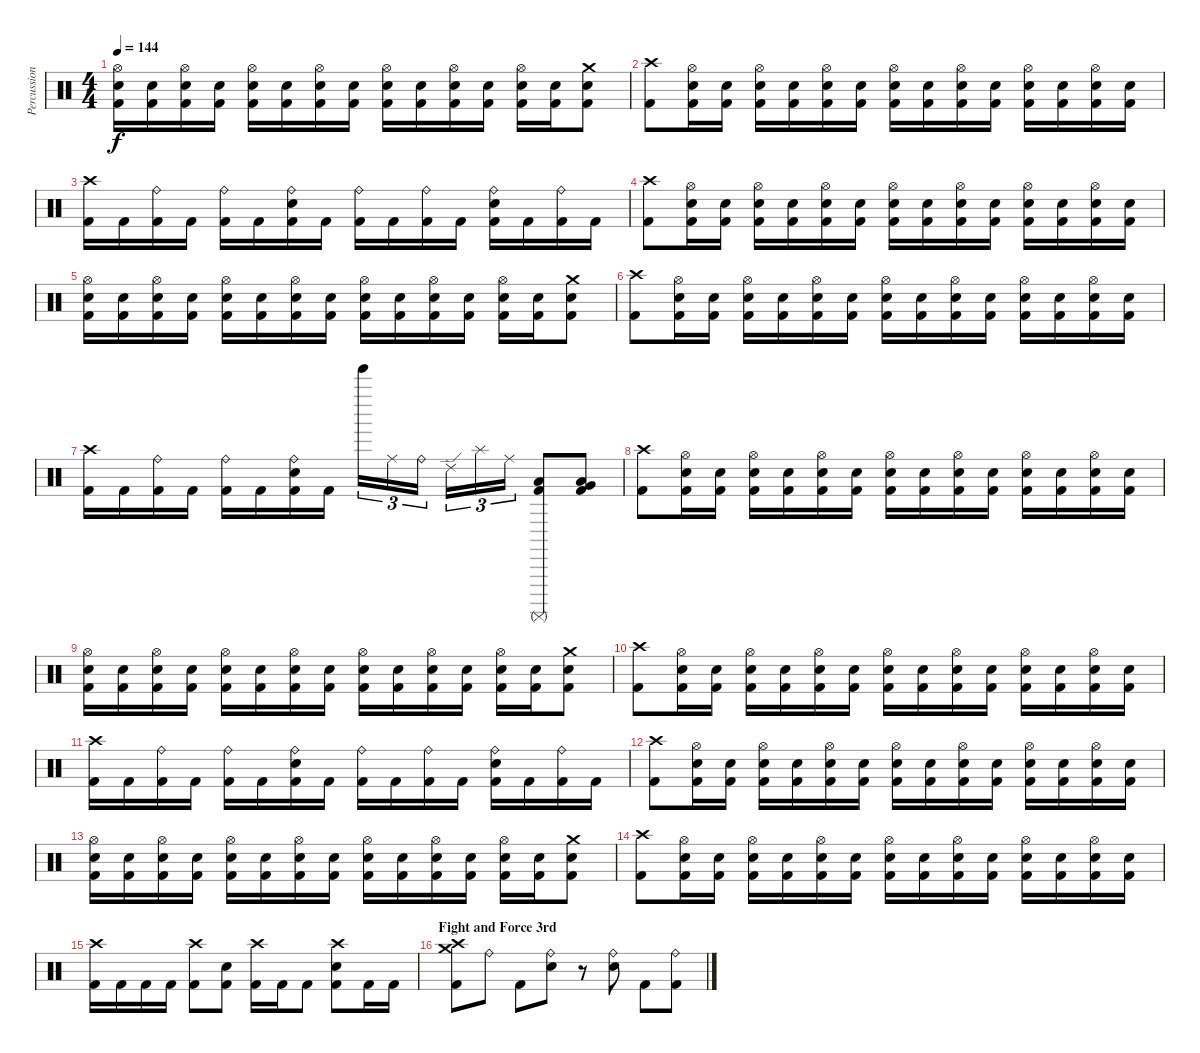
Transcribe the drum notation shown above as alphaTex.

\track ("Percussion" "Percussion") {instrument percussion}
\staff {score}
\articulation defaults
\ts (4 4)
\tempo 144
\clef neutral
\ks c
("Hi-Hat (open)" "Electric Snare (hit)" "Kick (hit) 2").16{dy f} ("Electric Snare (hit)" "Kick (hit) 2").16 ("Hi-Hat (open)" "Electric Snare (hit)" "Kick (hit) 2").16 ("Electric Snare (hit)" "Kick (hit) 2").16 ("Hi-Hat (open)" "Electric Snare (hit)" "Kick (hit) 2").16 ("Electric Snare (hit)" "Kick (hit) 2").16 ("Hi-Hat (open)" "Electric Snare (hit)" "Kick (hit) 2").16 ("Electric Snare (hit)" "Kick (hit) 2").16 ("Hi-Hat (open)" "Electric Snare (hit)" "Kick (hit) 2").16 ("Electric Snare (hit)" "Kick (hit) 2").16 ("Hi-Hat (open)" "Electric Snare (hit)" "Kick (hit) 2").16 ("Electric Snare (hit)" "Kick (hit) 2").16 ("Hi-Hat (open)" "Electric Snare (hit)" "Kick (hit) 2").16 ("Electric Snare (hit)" "Kick (hit) 2").16 ("Crash medium (hit)" "Electric Snare (hit)" "Kick (hit) 2").8 |
("Crash high (hit)" "Kick (hit) 2").8 ("Hi-Hat (open)" "Electric Snare (hit)" "Kick (hit) 2").16 ("Electric Snare (hit)" "Kick (hit) 2").16 ("Hi-Hat (open)" "Electric Snare (hit)" "Kick (hit) 2").16 ("Electric Snare (hit)" "Kick (hit) 2").16 ("Hi-Hat (open)" "Electric Snare (hit)" "Kick (hit) 2").16 ("Electric Snare (hit)" "Kick (hit) 2").16 ("Hi-Hat (open)" "Electric Snare (hit)" "Kick (hit) 2").16 ("Electric Snare (hit)" "Kick (hit) 2").16 ("Hi-Hat (open)" "Electric Snare (hit)" "Kick (hit) 2").16 ("Electric Snare (hit)" "Kick (hit) 2").16 ("Hi-Hat (open)" "Electric Snare (hit)" "Kick (hit) 2").16 ("Electric Snare (hit)" "Kick (hit) 2").16 ("Hi-Hat (open)" "Electric Snare (hit)" "Kick (hit) 2").16 ("Electric Snare (hit)" "Kick (hit) 2").16 |
("Crash high (hit)" "Kick (hit) 2").16 "Kick (hit) 2".16 ("Ride (bell)" "Kick (hit) 2").16 "Kick (hit) 2".16 ("Ride (bell)" "Kick (hit) 2").16 "Kick (hit) 2".16 ("Ride (bell)" "Electric Snare (hit)" "Kick (hit) 2").16 "Kick (hit) 2".16 ("Ride (bell)" "Kick (hit) 2").16 "Kick (hit) 2".16 ("Ride (bell)" "Kick (hit) 2").16 "Kick (hit) 2".16 ("Ride (bell)" "Electric Snare (hit)" "Kick (hit) 2").16 "Kick (hit) 2".16 ("Ride (bell)" "Kick (hit) 2").16 "Kick (hit) 2".16 |
("Crash high (hit)" "Kick (hit) 2").8 ("Hi-Hat (open)" "Electric Snare (hit)" "Kick (hit) 2").16 ("Electric Snare (hit)" "Kick (hit) 2").16 ("Hi-Hat (open)" "Electric Snare (hit)" "Kick (hit) 2").16 ("Electric Snare (hit)" "Kick (hit) 2").16 ("Hi-Hat (open)" "Electric Snare (hit)" "Kick (hit) 2").16 ("Electric Snare (hit)" "Kick (hit) 2").16 ("Hi-Hat (open)" "Electric Snare (hit)" "Kick (hit) 2").16 ("Electric Snare (hit)" "Kick (hit) 2").16 ("Hi-Hat (open)" "Electric Snare (hit)" "Kick (hit) 2").16 ("Electric Snare (hit)" "Kick (hit) 2").16 ("Hi-Hat (open)" "Electric Snare (hit)" "Kick (hit) 2").16 ("Electric Snare (hit)" "Kick (hit) 2").16 ("Hi-Hat (open)" "Electric Snare (hit)" "Kick (hit) 2").16 ("Electric Snare (hit)" "Kick (hit) 2").16 |
("Hi-Hat (open)" "Electric Snare (hit)" "Kick (hit) 2").16 ("Electric Snare (hit)" "Kick (hit) 2").16 ("Hi-Hat (open)" "Electric Snare (hit)" "Kick (hit) 2").16 ("Electric Snare (hit)" "Kick (hit) 2").16 ("Hi-Hat (open)" "Electric Snare (hit)" "Kick (hit) 2").16 ("Electric Snare (hit)" "Kick (hit) 2").16 ("Hi-Hat (open)" "Electric Snare (hit)" "Kick (hit) 2").16 ("Electric Snare (hit)" "Kick (hit) 2").16 ("Hi-Hat (open)" "Electric Snare (hit)" "Kick (hit) 2").16 ("Electric Snare (hit)" "Kick (hit) 2").16 ("Hi-Hat (open)" "Electric Snare (hit)" "Kick (hit) 2").16 ("Electric Snare (hit)" "Kick (hit) 2").16 ("Hi-Hat (open)" "Electric Snare (hit)" "Kick (hit) 2").16 ("Electric Snare (hit)" "Kick (hit) 2").16 ("Crash medium (hit)" "Electric Snare (hit)" "Kick (hit) 2").8 |
("Crash high (hit)" "Kick (hit) 2").8 ("Hi-Hat (open)" "Electric Snare (hit)" "Kick (hit) 2").16 ("Electric Snare (hit)" "Kick (hit) 2").16 ("Hi-Hat (open)" "Electric Snare (hit)" "Kick (hit) 2").16 ("Electric Snare (hit)" "Kick (hit) 2").16 ("Hi-Hat (open)" "Electric Snare (hit)" "Kick (hit) 2").16 ("Electric Snare (hit)" "Kick (hit) 2").16 ("Hi-Hat (open)" "Electric Snare (hit)" "Kick (hit) 2").16 ("Electric Snare (hit)" "Kick (hit) 2").16 ("Hi-Hat (open)" "Electric Snare (hit)" "Kick (hit) 2").16 ("Electric Snare (hit)" "Kick (hit) 2").16 ("Hi-Hat (open)" "Electric Snare (hit)" "Kick (hit) 2").16 ("Electric Snare (hit)" "Kick (hit) 2").16 ("Hi-Hat (open)" "Electric Snare (hit)" "Kick (hit) 2").16 ("Electric Snare (hit)" "Kick (hit) 2").16 |
("Crash high (hit)" "Kick (hit) 2").16 "Kick (hit) 2".16 ("Ride (bell)" "Kick (hit) 2").16 "Kick (hit) 2".16 ("Ride (bell)" "Kick (hit) 2").16 "Kick (hit) 2".16 ("Ride (bell)" "Electric Snare (hit)" "Kick (hit) 2").16 "Kick (hit) 2".16 "Tinkle Bell (hit)".16{tu (3 2)} "Ride (middle)".16{tu (3 2)} "Ride (bell)".16{tu (3 2)} "Ride (edge) 2".16{tu (3 2)} "Splash (hit)".16{tu (3 2)} "Ride (middle)".16{tu (3 2)} ("Low Tom (hit)" "Surdo (mute)" "Kick (hit) 2").8 ("Very Low Tom (hit)" "Low Tom (hit)" "Kick (hit) 2").8 |
("Crash high (hit)" "Kick (hit) 2").8 ("Hi-Hat (open)" "Electric Snare (hit)" "Kick (hit) 2").16 ("Electric Snare (hit)" "Kick (hit) 2").16 ("Hi-Hat (open)" "Electric Snare (hit)" "Kick (hit) 2").16 ("Electric Snare (hit)" "Kick (hit) 2").16 ("Hi-Hat (open)" "Electric Snare (hit)" "Kick (hit) 2").16 ("Electric Snare (hit)" "Kick (hit) 2").16 ("Hi-Hat (open)" "Electric Snare (hit)" "Kick (hit) 2").16 ("Electric Snare (hit)" "Kick (hit) 2").16 ("Hi-Hat (open)" "Electric Snare (hit)" "Kick (hit) 2").16 ("Electric Snare (hit)" "Kick (hit) 2").16 ("Hi-Hat (open)" "Electric Snare (hit)" "Kick (hit) 2").16 ("Electric Snare (hit)" "Kick (hit) 2").16 ("Hi-Hat (open)" "Electric Snare (hit)" "Kick (hit) 2").16 ("Electric Snare (hit)" "Kick (hit) 2").16 |
("Hi-Hat (open)" "Electric Snare (hit)" "Kick (hit) 2").16 ("Electric Snare (hit)" "Kick (hit) 2").16 ("Hi-Hat (open)" "Electric Snare (hit)" "Kick (hit) 2").16 ("Electric Snare (hit)" "Kick (hit) 2").16 ("Hi-Hat (open)" "Electric Snare (hit)" "Kick (hit) 2").16 ("Electric Snare (hit)" "Kick (hit) 2").16 ("Hi-Hat (open)" "Electric Snare (hit)" "Kick (hit) 2").16 ("Electric Snare (hit)" "Kick (hit) 2").16 ("Hi-Hat (open)" "Electric Snare (hit)" "Kick (hit) 2").16 ("Electric Snare (hit)" "Kick (hit) 2").16 ("Hi-Hat (open)" "Electric Snare (hit)" "Kick (hit) 2").16 ("Electric Snare (hit)" "Kick (hit) 2").16 ("Hi-Hat (open)" "Electric Snare (hit)" "Kick (hit) 2").16 ("Electric Snare (hit)" "Kick (hit) 2").16 ("Crash medium (hit)" "Electric Snare (hit)" "Kick (hit) 2").8 |
("Crash high (hit)" "Kick (hit) 2").8 ("Hi-Hat (open)" "Electric Snare (hit)" "Kick (hit) 2").16 ("Electric Snare (hit)" "Kick (hit) 2").16 ("Hi-Hat (open)" "Electric Snare (hit)" "Kick (hit) 2").16 ("Electric Snare (hit)" "Kick (hit) 2").16 ("Hi-Hat (open)" "Electric Snare (hit)" "Kick (hit) 2").16 ("Electric Snare (hit)" "Kick (hit) 2").16 ("Hi-Hat (open)" "Electric Snare (hit)" "Kick (hit) 2").16 ("Electric Snare (hit)" "Kick (hit) 2").16 ("Hi-Hat (open)" "Electric Snare (hit)" "Kick (hit) 2").16 ("Electric Snare (hit)" "Kick (hit) 2").16 ("Hi-Hat (open)" "Electric Snare (hit)" "Kick (hit) 2").16 ("Electric Snare (hit)" "Kick (hit) 2").16 ("Hi-Hat (open)" "Electric Snare (hit)" "Kick (hit) 2").16 ("Electric Snare (hit)" "Kick (hit) 2").16 |
("Crash high (hit)" "Kick (hit) 2").16 "Kick (hit) 2".16 ("Ride (bell)" "Kick (hit) 2").16 "Kick (hit) 2".16 ("Ride (bell)" "Kick (hit) 2").16 "Kick (hit) 2".16 ("Ride (bell)" "Electric Snare (hit)" "Kick (hit) 2").16 "Kick (hit) 2".16 ("Ride (bell)" "Kick (hit) 2").16 "Kick (hit) 2".16 ("Ride (bell)" "Kick (hit) 2").16 "Kick (hit) 2".16 ("Ride (bell)" "Electric Snare (hit)" "Kick (hit) 2").16 "Kick (hit) 2".16 ("Ride (bell)" "Kick (hit) 2").16 "Kick (hit) 2".16 |
("Crash high (hit)" "Kick (hit) 2").8 ("Hi-Hat (open)" "Electric Snare (hit)" "Kick (hit) 2").16 ("Electric Snare (hit)" "Kick (hit) 2").16 ("Hi-Hat (open)" "Electric Snare (hit)" "Kick (hit) 2").16 ("Electric Snare (hit)" "Kick (hit) 2").16 ("Hi-Hat (open)" "Electric Snare (hit)" "Kick (hit) 2").16 ("Electric Snare (hit)" "Kick (hit) 2").16 ("Hi-Hat (open)" "Electric Snare (hit)" "Kick (hit) 2").16 ("Electric Snare (hit)" "Kick (hit) 2").16 ("Hi-Hat (open)" "Electric Snare (hit)" "Kick (hit) 2").16 ("Electric Snare (hit)" "Kick (hit) 2").16 ("Hi-Hat (open)" "Electric Snare (hit)" "Kick (hit) 2").16 ("Electric Snare (hit)" "Kick (hit) 2").16 ("Hi-Hat (open)" "Electric Snare (hit)" "Kick (hit) 2").16 ("Electric Snare (hit)" "Kick (hit) 2").16 |
("Hi-Hat (open)" "Electric Snare (hit)" "Kick (hit) 2").16 ("Electric Snare (hit)" "Kick (hit) 2").16 ("Hi-Hat (open)" "Electric Snare (hit)" "Kick (hit) 2").16 ("Electric Snare (hit)" "Kick (hit) 2").16 ("Hi-Hat (open)" "Electric Snare (hit)" "Kick (hit) 2").16 ("Electric Snare (hit)" "Kick (hit) 2").16 ("Hi-Hat (open)" "Electric Snare (hit)" "Kick (hit) 2").16 ("Electric Snare (hit)" "Kick (hit) 2").16 ("Hi-Hat (open)" "Electric Snare (hit)" "Kick (hit) 2").16 ("Electric Snare (hit)" "Kick (hit) 2").16 ("Hi-Hat (open)" "Electric Snare (hit)" "Kick (hit) 2").16 ("Electric Snare (hit)" "Kick (hit) 2").16 ("Hi-Hat (open)" "Electric Snare (hit)" "Kick (hit) 2").16 ("Electric Snare (hit)" "Kick (hit) 2").16 ("Crash medium (hit)" "Electric Snare (hit)" "Kick (hit) 2").8 |
("Crash high (hit)" "Kick (hit) 2").8 ("Hi-Hat (open)" "Electric Snare (hit)" "Kick (hit) 2").16 ("Electric Snare (hit)" "Kick (hit) 2").16 ("Hi-Hat (open)" "Electric Snare (hit)" "Kick (hit) 2").16 ("Electric Snare (hit)" "Kick (hit) 2").16 ("Hi-Hat (open)" "Electric Snare (hit)" "Kick (hit) 2").16 ("Electric Snare (hit)" "Kick (hit) 2").16 ("Hi-Hat (open)" "Electric Snare (hit)" "Kick (hit) 2").16 ("Electric Snare (hit)" "Kick (hit) 2").16 ("Hi-Hat (open)" "Electric Snare (hit)" "Kick (hit) 2").16 ("Electric Snare (hit)" "Kick (hit) 2").16 ("Hi-Hat (open)" "Electric Snare (hit)" "Kick (hit) 2").16 ("Electric Snare (hit)" "Kick (hit) 2").16 ("Hi-Hat (open)" "Electric Snare (hit)" "Kick (hit) 2").16 ("Electric Snare (hit)" "Kick (hit) 2").16 |
("Crash high (hit)" "Kick (hit) 2").16 "Kick (hit) 2".16 "Kick (hit) 2".16 "Kick (hit) 2".16 ("Crash high (hit)" "Kick (hit) 2").8 ("Electric Snare (hit)" "Kick (hit) 2").8 ("Crash high (hit)" "Kick (hit) 2").16 "Kick (hit) 2".16 "Kick (hit) 2".8 ("Crash high (hit)" "Electric Snare (hit)" "Kick (hit) 2").8 "Kick (hit) 2".16 "Kick (hit) 2".16 |
\section ("" "Fight and Force 3rd")
("Crash medium (hit)" "Crash high (hit)" "Kick (hit) 2").8 "Ride (bell)".8 "Kick (hit) 2".8 ("Ride (bell)" "Electric Snare (hit)").8 r.8 ("Ride (bell)" "Electric Snare (hit)").8 "Kick (hit) 2".8 ("Ride (bell)" "Kick (hit) 2").8
